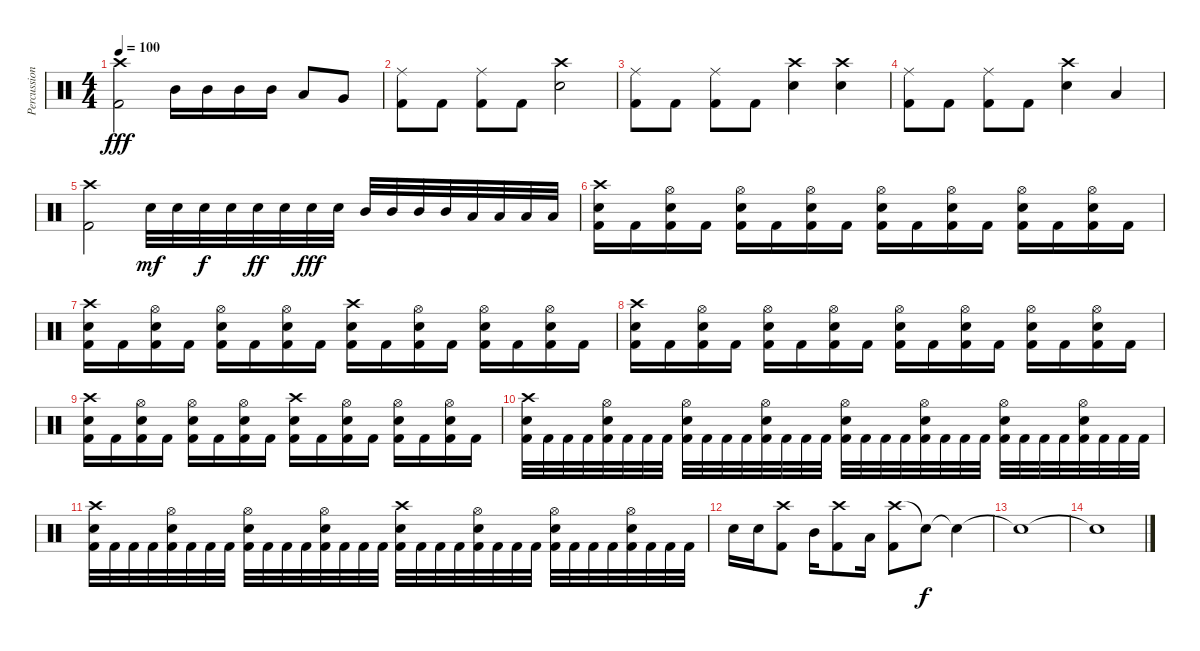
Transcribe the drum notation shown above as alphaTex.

\track ("Percussion" "Percussion") {instrument percussion}
\staff {score}
\articulation defaults
\ts (4 4)
\tempo 100
\clef neutral
\ks c
("Crash high (hit)" "Kick (hit) 2").2{dy fff} "Mid Tom (hit)".16 "Mid Tom (hit)".16 "Mid Tom (hit)".16 "Mid Tom (hit)".16 "Low Tom (hit)".8 "Very Low Tom (hit)".8 |
("Ride (middle)" "Kick (hit) 2").8 "Kick (hit) 2".8 ("Ride (middle)" "Kick (hit) 2").8 "Kick (hit) 2".8 ("Crash high (hit)" "Snare (hit) 2").2 |
("Ride (middle)" "Kick (hit) 2").8 "Kick (hit) 2".8 ("Ride (middle)" "Kick (hit) 2").8 "Kick (hit) 2".8 ("Crash high (hit)" "Snare (hit) 2").4 ("Crash high (hit)" "Snare (hit) 2").4 |
("Ride (middle)" "Kick (hit) 2").8 "Kick (hit) 2".8 ("Ride (middle)" "Kick (hit) 2").8 "Kick (hit) 2".8 ("Crash high (hit)" "Snare (hit) 2").4 "Low Tom (hit)".4 |
("Crash high (hit)" "Kick (hit) 2").2 "Snare (hit) 2".32{dy mf} "Snare (hit) 2".32 "Snare (hit) 2".32{dy f} "Snare (hit) 2".32 "Snare (hit) 2".32{dy ff} "Snare (hit) 2".32 "Snare (hit) 2".32{dy fff} "Snare (hit) 2".32 "Mid Tom (hit)".32 "Mid Tom (hit)".32 "Mid Tom (hit)".32 "Mid Tom (hit)".32 "Low Tom (hit)".32 "Low Tom (hit)".32 "Low Tom (hit)".32 "Low Tom (hit)".32 |
("Crash high (hit)" "Snare (hit) 2" "Kick (hit) 2").16 "Kick (hit) 2".16 ("Hi-Hat (open)" "Snare (hit) 2" "Kick (hit) 2").16 "Kick (hit) 2".16 ("Hi-Hat (open)" "Snare (hit) 2" "Kick (hit) 2").16 "Kick (hit) 2".16 ("Hi-Hat (open)" "Snare (hit) 2" "Kick (hit) 2").16 "Kick (hit) 2".16 ("Hi-Hat (open)" "Snare (hit) 2" "Kick (hit) 2").16 "Kick (hit) 2".16 ("Hi-Hat (open)" "Snare (hit) 2" "Kick (hit) 2").16 "Kick (hit) 2".16 ("Hi-Hat (open)" "Snare (hit) 2" "Kick (hit) 2").16 "Kick (hit) 2".16 ("Hi-Hat (open)" "Snare (hit) 2" "Kick (hit) 2").16 "Kick (hit) 2".16 |
("Crash high (hit)" "Snare (hit) 2" "Kick (hit) 2").16 "Kick (hit) 2".16 ("Hi-Hat (open)" "Snare (hit) 2" "Kick (hit) 2").16 "Kick (hit) 2".16 ("Hi-Hat (open)" "Snare (hit) 2" "Kick (hit) 2").16 "Kick (hit) 2".16 ("Hi-Hat (open)" "Snare (hit) 2" "Kick (hit) 2").16 "Kick (hit) 2".16 ("Crash high (hit)" "Snare (hit) 2" "Kick (hit) 2").16 "Kick (hit) 2".16 ("Hi-Hat (open)" "Snare (hit) 2" "Kick (hit) 2").16 "Kick (hit) 2".16 ("Hi-Hat (open)" "Snare (hit) 2" "Kick (hit) 2").16 "Kick (hit) 2".16 ("Hi-Hat (open)" "Snare (hit) 2" "Kick (hit) 2").16 "Kick (hit) 2".16 |
("Crash high (hit)" "Snare (hit) 2" "Kick (hit) 2").16 "Kick (hit) 2".16 ("Hi-Hat (open)" "Snare (hit) 2" "Kick (hit) 2").16 "Kick (hit) 2".16 ("Hi-Hat (open)" "Snare (hit) 2" "Kick (hit) 2").16 "Kick (hit) 2".16 ("Hi-Hat (open)" "Snare (hit) 2" "Kick (hit) 2").16 "Kick (hit) 2".16 ("Hi-Hat (open)" "Snare (hit) 2" "Kick (hit) 2").16 "Kick (hit) 2".16 ("Hi-Hat (open)" "Snare (hit) 2" "Kick (hit) 2").16 "Kick (hit) 2".16 ("Hi-Hat (open)" "Snare (hit) 2" "Kick (hit) 2").16 "Kick (hit) 2".16 ("Hi-Hat (open)" "Snare (hit) 2" "Kick (hit) 2").16 "Kick (hit) 2".16 |
("Crash high (hit)" "Snare (hit) 2" "Kick (hit) 2").16 "Kick (hit) 2".16 ("Hi-Hat (open)" "Snare (hit) 2" "Kick (hit) 2").16 "Kick (hit) 2".16 ("Hi-Hat (open)" "Snare (hit) 2" "Kick (hit) 2").16 "Kick (hit) 2".16 ("Hi-Hat (open)" "Snare (hit) 2" "Kick (hit) 2").16 "Kick (hit) 2".16 ("Crash high (hit)" "Snare (hit) 2" "Kick (hit) 2").16 "Kick (hit) 2".16 ("Hi-Hat (open)" "Snare (hit) 2" "Kick (hit) 2").16 "Kick (hit) 2".16 ("Hi-Hat (open)" "Snare (hit) 2" "Kick (hit) 2").16 "Kick (hit) 2".16 ("Hi-Hat (open)" "Snare (hit) 2" "Kick (hit) 2").16 "Kick (hit) 2".16 |
("Crash high (hit)" "Snare (hit) 2" "Kick (hit) 2").32 "Kick (hit) 2".32 "Kick (hit) 2".32 "Kick (hit) 2".32 ("Hi-Hat (open)" "Snare (hit) 2" "Kick (hit) 2").32 "Kick (hit) 2".32 "Kick (hit) 2".32 "Kick (hit) 2".32 ("Hi-Hat (open)" "Snare (hit) 2" "Kick (hit) 2").32 "Kick (hit) 2".32 "Kick (hit) 2".32 "Kick (hit) 2".32 ("Hi-Hat (open)" "Snare (hit) 2" "Kick (hit) 2").32 "Kick (hit) 2".32 "Kick (hit) 2".32 "Kick (hit) 2".32 ("Hi-Hat (open)" "Snare (hit) 2" "Kick (hit) 2").32 "Kick (hit) 2".32 "Kick (hit) 2".32 "Kick (hit) 2".32 ("Hi-Hat (open)" "Snare (hit) 2" "Kick (hit) 2").32 "Kick (hit) 2".32 "Kick (hit) 2".32 "Kick (hit) 2".32 ("Hi-Hat (open)" "Snare (hit) 2" "Kick (hit) 2").32 "Kick (hit) 2".32 "Kick (hit) 2".32 "Kick (hit) 2".32 ("Hi-Hat (open)" "Snare (hit) 2" "Kick (hit) 2").32 "Kick (hit) 2".32 "Kick (hit) 2".32 "Kick (hit) 2".32 |
("Crash high (hit)" "Snare (hit) 2" "Kick (hit) 2").32 "Kick (hit) 2".32 "Kick (hit) 2".32 "Kick (hit) 2".32 ("Hi-Hat (open)" "Snare (hit) 2" "Kick (hit) 2").32 "Kick (hit) 2".32 "Kick (hit) 2".32 "Kick (hit) 2".32 ("Hi-Hat (open)" "Snare (hit) 2" "Kick (hit) 2").32 "Kick (hit) 2".32 "Kick (hit) 2".32 "Kick (hit) 2".32 ("Hi-Hat (open)" "Snare (hit) 2" "Kick (hit) 2").32 "Kick (hit) 2".32 "Kick (hit) 2".32 "Kick (hit) 2".32 ("Crash high (hit)" "Snare (hit) 2" "Kick (hit) 2").32 "Kick (hit) 2".32 "Kick (hit) 2".32 "Kick (hit) 2".32 ("Hi-Hat (open)" "Snare (hit) 2" "Kick (hit) 2").32 "Kick (hit) 2".32 "Kick (hit) 2".32 "Kick (hit) 2".32 ("Hi-Hat (open)" "Snare (hit) 2" "Kick (hit) 2").32 "Kick (hit) 2".32 "Kick (hit) 2".32 "Kick (hit) 2".32 ("Hi-Hat (open)" "Snare (hit) 2" "Kick (hit) 2").32 "Kick (hit) 2".32 "Kick (hit) 2".32 "Kick (hit) 2".32 |
"Snare (hit) 2".16 "Snare (hit) 2".16 ("Crash high (hit)" "Kick (hit) 2").8 "Mid Tom (hit)".16 ("Crash high (hit)" "Kick (hit) 2").8 "Low Tom (hit)".16 ("Crash high (hit)" "Kick (hit) 2").8 "Snare (hit)"{t}.8{dy f} "Snare (hit)"{t}.4 |
"Snare (hit)"{t}.1 |
"Snare (hit)"{t}.1
